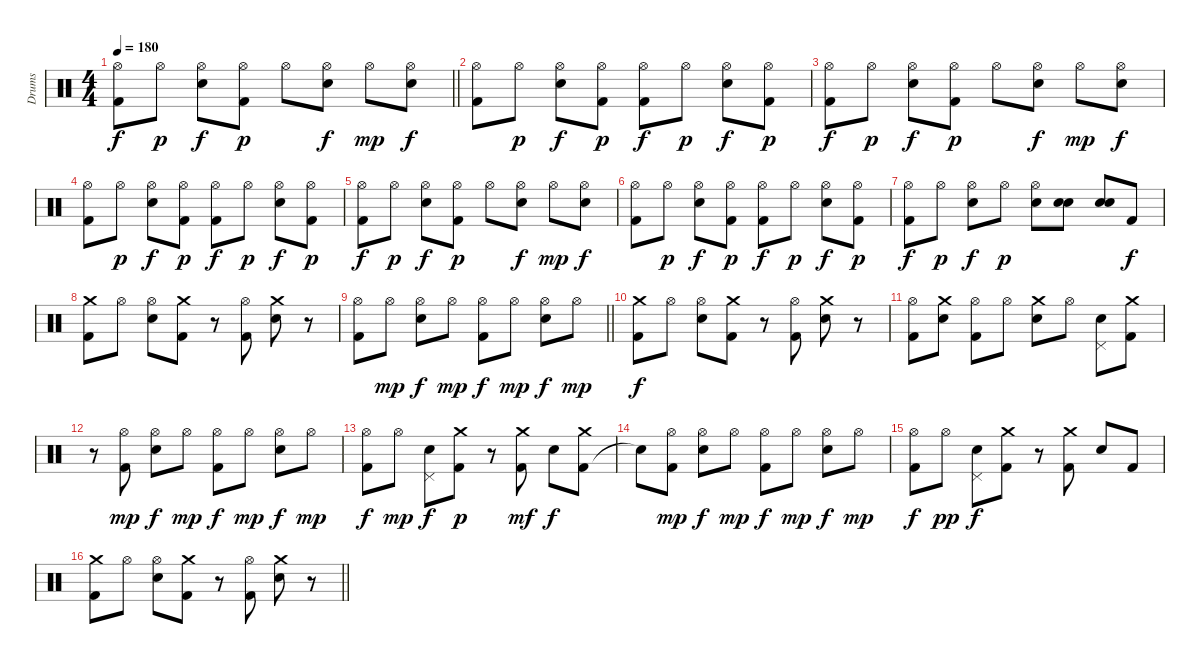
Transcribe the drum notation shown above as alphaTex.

\track ("Drums" "Drums") {instrument percussion}
\staff {score}
\articulation defaults
\ts (4 4)
\tempo 180
\clef neutral
\barLineRight lightlight
\ks c
("Hi-Hat (open)" "Kick (hit) 2").8{dy f} "Hi-Hat (open)".8{dy p} ("Hi-Hat (open)" "Electric Snare (hit)").8{dy f} ("Hi-Hat (open)" "Kick (hit) 2").8{dy p} "Hi-Hat (open)".8 ("Hi-Hat (open)" "Electric Snare (hit)").8{dy f} "Hi-Hat (open)".8{dy mp} ("Hi-Hat (open)" "Electric Snare (hit)").8{dy f} |
("Hi-Hat (open)" "Kick (hit) 2").8 "Hi-Hat (open)".8{dy p} ("Hi-Hat (open)" "Electric Snare (hit)").8{dy f} ("Hi-Hat (open)" "Kick (hit) 2").8{dy p} ("Hi-Hat (open)" "Kick (hit) 2").8{dy f} "Hi-Hat (open)".8{dy p} ("Hi-Hat (open)" "Electric Snare (hit)").8{dy f} ("Hi-Hat (open)" "Kick (hit) 2").8{dy p} |
("Hi-Hat (open)" "Kick (hit) 2").8{dy f} "Hi-Hat (open)".8{dy p} ("Hi-Hat (open)" "Electric Snare (hit)").8{dy f} ("Hi-Hat (open)" "Kick (hit) 2").8{dy p} "Hi-Hat (open)".8 ("Hi-Hat (open)" "Electric Snare (hit)").8{dy f} "Hi-Hat (open)".8{dy mp} ("Hi-Hat (open)" "Electric Snare (hit)").8{dy f} |
("Hi-Hat (open)" "Kick (hit) 2").8 "Hi-Hat (open)".8{dy p} ("Hi-Hat (open)" "Electric Snare (hit)").8{dy f} ("Hi-Hat (open)" "Kick (hit) 2").8{dy p} ("Hi-Hat (open)" "Kick (hit) 2").8{dy f} "Hi-Hat (open)".8{dy p} ("Hi-Hat (open)" "Electric Snare (hit)").8{dy f} ("Hi-Hat (open)" "Kick (hit) 2").8{dy p} |
("Hi-Hat (open)" "Kick (hit) 2").8{dy f} "Hi-Hat (open)".8{dy p} ("Hi-Hat (open)" "Electric Snare (hit)").8{dy f} ("Hi-Hat (open)" "Kick (hit) 2").8{dy p} "Hi-Hat (open)".8 ("Hi-Hat (open)" "Electric Snare (hit)").8{dy f} "Hi-Hat (open)".8{dy mp} ("Hi-Hat (open)" "Electric Snare (hit)").8{dy f} |
("Hi-Hat (open)" "Kick (hit) 2").8 "Hi-Hat (open)".8{dy p} ("Hi-Hat (open)" "Electric Snare (hit)").8{dy f} ("Hi-Hat (open)" "Kick (hit) 2").8{dy p} ("Hi-Hat (open)" "Kick (hit) 2").8{dy f} "Hi-Hat (open)".8{dy p} ("Hi-Hat (open)" "Electric Snare (hit)").8{dy f} ("Hi-Hat (open)" "Kick (hit) 2").8{dy p} |
("Hi-Hat (open)" "Kick (hit) 2").8{dy f} "Hi-Hat (open)".8{dy p} ("Hi-Hat (open)" "Electric Snare (hit)").8{dy f} "Hi-Hat (open)".8{dy p} ("Electric Snare (hit)" "Hi-Hat (open)").8 ("Electric Snare (hit)" "Electric Snare (hit)").8 ("Electric Snare (hit)" "Electric Snare (hit)").8 "Kick (hit) 2".8{dy f} |
("Crash medium (hit)" "Kick (hit) 2").8 "Hi-Hat (open)".8 ("Hi-Hat (open)" "Electric Snare (hit)").8 ("Kick (hit) 2" "Crash medium (hit)").8 r.8 ("Hi-Hat (open)" "Kick (hit) 2").8 ("Crash medium (hit)" "Electric Snare (hit)").8 r.8 |
\barLineRight lightlight
("Hi-Hat (open)" "Kick (hit) 2").8 "Hi-Hat (open)".8{dy mp} ("Hi-Hat (open)" "Electric Snare (hit)").8{dy f} "Hi-Hat (open)".8{dy mp} ("Hi-Hat (open)" "Kick (hit) 2").8{dy f} "Hi-Hat (open)".8{dy mp} ("Hi-Hat (open)" "Electric Snare (hit)").8{dy f} "Hi-Hat (open)".8{dy mp} |
("Crash medium (hit)" "Kick (hit) 2").8{dy f} "Hi-Hat (open)".8 ("Hi-Hat (open)" "Electric Snare (hit)").8 ("Kick (hit) 2" "Crash medium (hit)").8 r.8 ("Hi-Hat (open)" "Kick (hit) 2").8 ("Electric Snare (hit)" "Crash medium (hit)").8 r.8 |
("Hi-Hat (open)" "Kick (hit) 2").8 ("Crash medium (hit)" "Electric Snare (hit)").8 ("Hi-Hat (open)" "Kick (hit) 2").8 "Hi-Hat (open)".8 ("Crash medium (hit)" "Electric Snare (hit)").8 "Hi-Hat (open)".8 ("Pedal Hi-Hat (hit)" "Electric Snare (hit)").8 ("Kick (hit) 2" "Crash medium (hit)").8 |
r.8 ("Hi-Hat (open)" "Kick (hit) 2").8{dy mp} ("Hi-Hat (open)" "Electric Snare (hit)").8{dy f} "Hi-Hat (open)".8{dy mp} ("Hi-Hat (open)" "Kick (hit) 2").8{dy f} "Hi-Hat (open)".8{dy mp} ("Hi-Hat (open)" "Electric Snare (hit)").8{dy f} "Hi-Hat (open)".8{dy mp} |
("Hi-Hat (open)" "Kick (hit) 2").8{dy f} "Hi-Hat (open)".8{dy mp} ("Pedal Hi-Hat (hit)" "Electric Snare (hit)").8{dy f} ("Crash medium (hit)" "Kick (hit) 2").8{dy p} r.8 ("Crash medium (hit)" "Kick (hit) 2").8{dy mf} "Electric Snare (hit)".8{dy f} ("Kick (hit) 2" "Crash medium (hit)").8 |
"Snare (hit)"{t}.8 ("Hi-Hat (open)" "Kick (hit) 2").8{dy mp} ("Hi-Hat (open)" "Electric Snare (hit)").8{dy f} "Hi-Hat (open)".8{dy mp} ("Hi-Hat (open)" "Kick (hit) 2").8{dy f} "Hi-Hat (open)".8{dy mp} ("Hi-Hat (open)" "Electric Snare (hit)").8{dy f} "Hi-Hat (open)".8{dy mp} |
("Hi-Hat (open)" "Kick (hit) 2").8{dy f} "Hi-Hat (open)".8{dy pp} ("Pedal Hi-Hat (hit)" "Electric Snare (hit)").8{dy f} ("Crash medium (hit)" "Kick (hit) 2").8 r.8 ("Crash medium (hit)" "Kick (hit) 2").8 "Electric Snare (hit)".8 "Kick (hit) 2".8 |
\barLineRight lightlight
("Crash medium (hit)" "Kick (hit) 2").8 "Hi-Hat (open)".8 ("Hi-Hat (open)" "Electric Snare (hit)").8 ("Kick (hit) 2" "Crash medium (hit)").8 r.8 ("Hi-Hat (open)" "Kick (hit) 2").8 ("Crash medium (hit)" "Electric Snare (hit)").8 r.8
